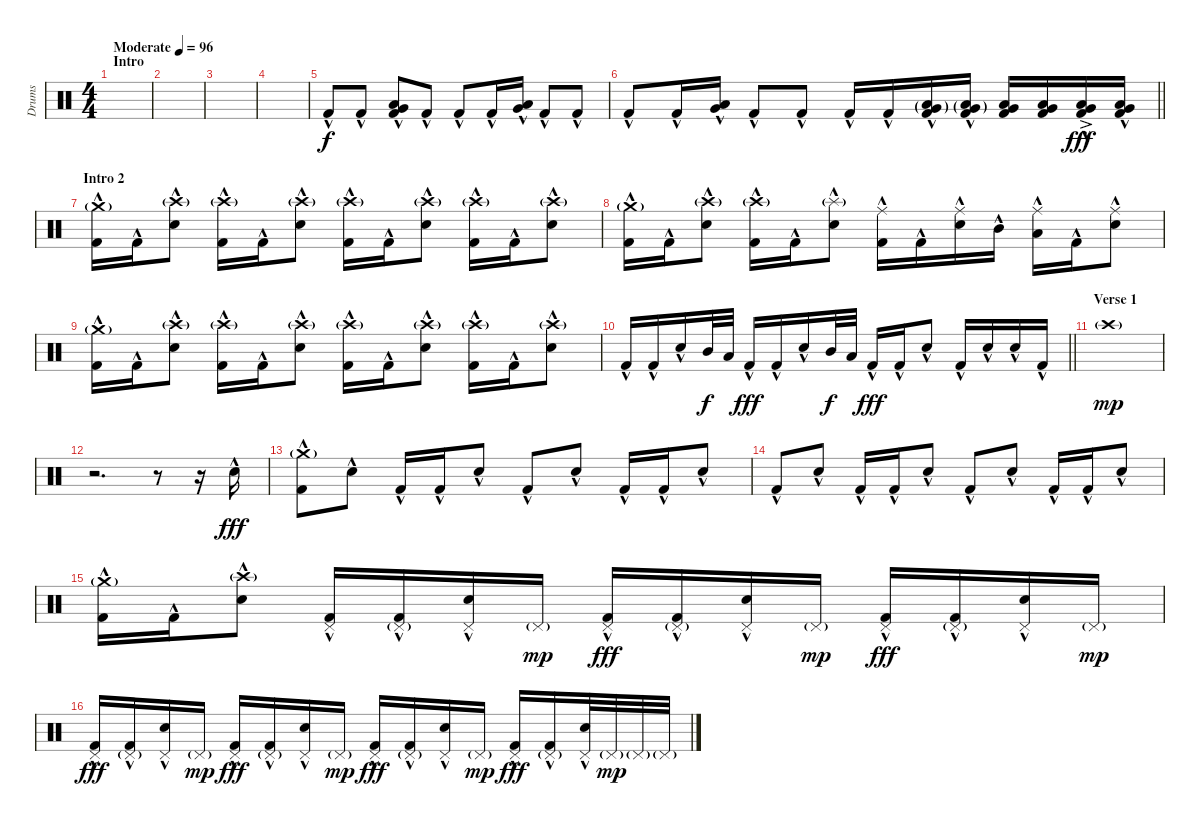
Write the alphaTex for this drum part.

\track ("Drums" "Drums") {instrument percussion}
\staff {score}
\articulation defaults
\ts (4 4)
\section ("" "Intro")
\tempo (96 "Moderate")
\clef neutral
\ks c
|
|
|
|
"Kick (hit) 2"{hac}.8 "Kick (hit) 2"{hac}.8 ("Very Low Tom (hit)"{hac} "Low Floor Tom (hit)"{hac} "Kick (hit) 2"{hac}).8 "Kick (hit) 2"{hac}.8 "Kick (hit) 2"{hac}.8 "Kick (hit) 2"{hac}.16 ("Very Low Tom (hit)"{hac} "Low Floor Tom (hit)"{hac}).16 "Kick (hit) 2"{hac}.8 "Kick (hit) 2"{hac}.8 |
\barLineRight lightlight "Kick (hit) 2"{hac}.8 "Kick (hit) 2"{hac}.16
("Very Low Tom (hit)"{hac} "Low Floor Tom (hit)"{hac}).16 "Kick (hit) 2"{hac}.8 "Kick (hit) 2"{hac}.8 "Kick (hit) 2"{hac}.16 "Kick (hit) 2"{hac}.16 ("Very Low Tom (hit)"{g} "Low Floor Tom (hit)"{g} "Kick (hit) 2"{hac}).16 ("Very Low Tom (hit)"{g} "Low Floor Tom (hit)"{g} "Kick (hit) 2"{hac}).16 ("Very Low Tom (hit)" "Low Floor Tom (hit)" "Kick (hit) 2").16{dy f} ("Very Low Tom (hit)" "Low Floor Tom (hit)" "Kick (hit) 2").16 ("Very Low Tom (hit)"{ac} "Low Floor Tom (hit)"{ac} "Kick (hit) 2"{hac}).16{dy fff} ("Very Low Tom (hit)"{hac} "Low Floor Tom (hit)"{hac} "Kick (hit) 2"{hac}).16 |
\section ("" "Intro 2")
("Crash medium (hit)"{g} "Kick (hit) 2"{hac}).16 "Kick (hit) 2"{hac}.16 ("Crash high (hit)"{g} "Snare (hit) 2"{hac}).8 ("Crash high (hit)"{g} "Kick (hit) 2"{hac}).16 "Kick (hit) 2"{hac}.16 ("Crash high (hit)"{g} "Snare (hit) 2"{hac}).8 ("Crash high (hit)"{g} "Kick (hit) 2"{hac}).16 "Kick (hit) 2"{hac}.16 ("Crash high (hit)"{g} "Snare (hit) 2"{hac}).8 ("Crash high (hit)"{g} "Kick (hit) 2"{hac}).16 "Kick (hit) 2"{hac}.16 ("Crash high (hit)"{g} "Snare (hit) 2"{hac}).8 |
("Crash medium (hit)"{g} "Kick (hit) 2"{hac}).16 "Kick (hit) 2"{hac}.16 ("Crash high (hit)"{g} "Snare (hit) 2"{hac}).8 ("Crash high (hit)"{g} "Kick (hit) 2"{hac}).16 "Kick (hit) 2"{hac}.16 ("Splash (hit)"{g} "Snare (hit) 2"{hac}).8 ("Ride (middle)" "Kick (hit) 2"{hac}).16 "Kick (hit) 2"{hac}.16 ("Ride (middle)" "Snare (hit) 2"{hac}).16 "Mid Tom (hit)"{hac}.16 ("Ride (middle)" "Low Tom (hit)"{hac}).16 "Kick (hit) 2"{hac}.16 ("Ride (middle)" "Snare (hit) 2"{hac}).8 |
("Crash medium (hit)"{g} "Kick (hit) 2"{hac}).16 "Kick (hit) 2"{hac}.16 ("Crash high (hit)"{g} "Snare (hit) 2"{hac}).8 ("Crash high (hit)"{g} "Kick (hit) 2"{hac}).16 "Kick (hit) 2"{hac}.16 ("Crash high (hit)"{g} "Snare (hit) 2"{hac}).8 ("Crash high (hit)"{g} "Kick (hit) 2"{hac}).16 "Kick (hit) 2"{hac}.16 ("Crash high (hit)"{g} "Snare (hit) 2"{hac}).8 ("Crash high (hit)"{g} "Kick (hit) 2"{hac}).16 "Kick (hit) 2"{hac}.16 ("Crash high (hit)"{g} "Snare (hit) 2"{hac}).8 |
\barLineRight lightlight "Kick (hit) 2"{hac}.16 "Kick (hit) 2"{hac}.16 "Snare (hit) 2"{hac}.16 "Mid Tom (hit)".32{dy f} "Low Tom (hit)".32 "Kick (hit) 2"{hac}.16{dy fff} "Kick (hit) 2"{hac}.16 "Snare (hit) 2"{hac}.16 "Mid Tom (hit)".32{dy f} "Low Tom (hit)".32 "Kick (hit) 2"{hac}.16{dy fff} "Kick (hit) 2"{hac}.16 "Snare (hit) 2"{hac}.8 "Kick (hit) 2"{hac}.16 "Snare (hit) 2"{hac}.16 "Snare (hit) 2"{hac}.16 "Kick (hit) 2"{hac}.16
|
\section ("" "Verse 1")
"Crash high (hit)"{g}.1{dy mp} |
r.2{d} r.8 r.16 "Snare (hit) 2"{hac}.16{dy fff} |
("Crash medium (hit)"{g} "Kick (hit) 2"{hac}).8 "Snare (hit) 2"{hac}.8 "Kick (hit) 2"{hac}.16 "Kick (hit) 2"{hac}.16 "Snare (hit) 2"{hac}.8 "Kick (hit) 2"{hac}.8 "Snare (hit) 2"{hac}.8 "Kick (hit) 2"{hac}.16 "Kick (hit) 2"{hac}.16 "Snare (hit) 2"{hac}.8 |
"Kick (hit) 2"{hac}.8 "Snare (hit) 2"{hac}.8 "Kick (hit) 2"{hac}.16 "Kick (hit) 2"{hac}.16 "Snare (hit) 2"{hac}.8 "Kick (hit) 2"{hac}.8 "Snare (hit) 2"{hac}.8 "Kick (hit) 2"{hac}.16 "Kick (hit) 2"{hac}.16 "Snare (hit) 2"{hac}.8 |
("Crash medium (hit)"{g} "Kick (hit) 2"{hac}).16 "Kick (hit) 2"{hac}.16 ("Crash high (hit)"{g} "Snare (hit) 2"{hac}).8 ("Pedal Hi-Hat (hit)" "Kick (hit) 2"{hac}).16 ("Pedal Hi-Hat (hit)"{g} "Kick (hit) 2"{hac}).16 ("Pedal Hi-Hat (hit)" "Snare (hit) 2"{hac}).16 "Pedal Hi-Hat (hit)"{g}.16{dy mp} ("Pedal Hi-Hat (hit)" "Kick (hit) 2"{hac}).16{dy fff} ("Pedal Hi-Hat (hit)"{g} "Kick (hit) 2"{hac}).16 ("Pedal Hi-Hat (hit)" "Snare (hit) 2"{hac}).16 "Pedal Hi-Hat (hit)"{g}.16{dy mp} ("Pedal Hi-Hat (hit)" "Kick (hit) 2"{hac}).16{dy fff} ("Pedal Hi-Hat (hit)"{g} "Kick (hit) 2"{hac}).16 ("Pedal Hi-Hat (hit)" "Snare (hit) 2"{hac}).16 "Pedal Hi-Hat (hit)"{g}.16{dy mp} |
("Pedal Hi-Hat (hit)" "Kick (hit) 2"{hac}).16{dy fff} ("Pedal Hi-Hat (hit)"{g} "Kick (hit) 2"{hac}).16 ("Pedal Hi-Hat (hit)" "Snare (hit) 2"{hac}).16 "Pedal Hi-Hat (hit)"{g}.16{dy mp} ("Pedal Hi-Hat (hit)" "Kick (hit) 2"{hac}).16{dy fff} ("Pedal Hi-Hat (hit)"{g} "Kick (hit) 2"{hac}).16 ("Pedal Hi-Hat (hit)" "Snare (hit) 2"{hac}).16 "Pedal Hi-Hat (hit)"{g}.16{dy mp} ("Pedal Hi-Hat (hit)" "Kick (hit) 2"{hac}).16{dy fff} ("Pedal Hi-Hat (hit)"{g} "Kick (hit) 2"{hac}).16 ("Pedal Hi-Hat (hit)" "Snare (hit) 2"{hac}).16 "Pedal Hi-Hat (hit)"{g}.16{dy mp} ("Pedal Hi-Hat (hit)" "Kick (hit) 2"{hac}).16{dy fff} ("Pedal Hi-Hat (hit)"{g} "Kick (hit) 2"{hac}).16 ("Pedal Hi-Hat (hit)" "Snare (hit) 2"{hac}).32 "Pedal Hi-Hat (hit)"{g}.32{dy mp} "Pedal Hi-Hat (hit)"{g}.32 "Pedal Hi-Hat (hit)"{g}.32
